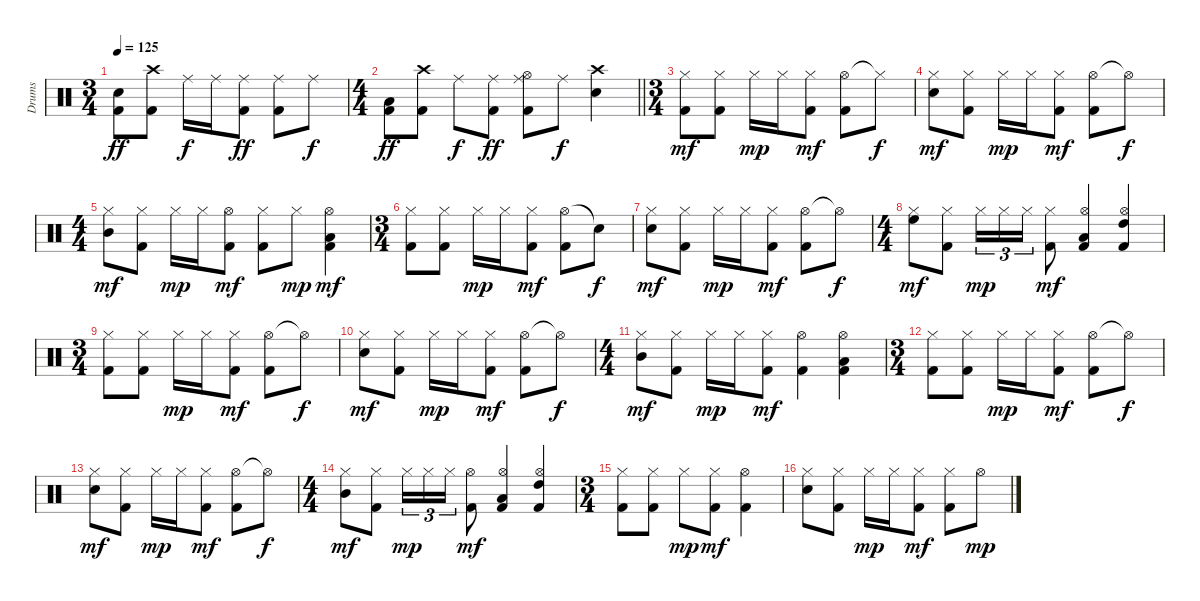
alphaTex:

\track ("Drums" "Drums") {instrument percussion}
\staff {score}
\articulation defaults
\ts (3 4)
\tempo 125
\clef neutral
\ks c
("Snare (hit) 2" "Kick (hit) 2").8{dy ff} ("Crash high (hit)" "Kick (hit) 2").8 "Ride (middle)".16{dy f} "Ride (middle)".16 ("Ride (middle)" "Kick (hit) 2").8{dy ff} ("Ride (middle)" "Kick (hit) 2").8 "Ride (middle)".8{dy f} |
\ts (4 4)
\barLineRight lightlight
("Low Floor Tom (hit)" "Kick (hit) 2").8{dy ff} ("Crash high (hit)" "Kick (hit) 2").8 "Ride (middle)".8{dy f} ("Ride (middle)" "Kick (hit) 2").8{dy ff} ("Ride (middle)" "Hi-Hat (open)" "Kick (hit) 2").8 "Ride (middle)".8{dy f} ("Crash high (hit)" "Snare (hit) 2").4 |
\ts (3 4)
\section ("" "")
("Hi-Hat (closed)" "Kick (hit) 2").8{dy mf} ("Hi-Hat (closed)" "Kick (hit) 2").8 "Hi-Hat (closed)".16{dy mp} "Hi-Hat (closed)".16 ("Hi-Hat (closed)" "Kick (hit) 2").8{dy mf} ("Hi-Hat (open)" "Kick (hit) 2").8 "Hi-Hat (closed)"{t}.8{dy f} |
("Hi-Hat (closed)" "Snare (hit) 2").8{dy mf} ("Hi-Hat (closed)" "Kick (hit) 2").8 "Hi-Hat (closed)".16{dy mp} "Hi-Hat (closed)".16 ("Hi-Hat (closed)" "Kick (hit) 2").8{dy mf} ("Hi-Hat (open)" "Kick (hit) 2").8 "Hi-Hat (open)"{t}.8{dy f} |
\ts (4 4)
("Hi-Hat (closed)" "Mid Tom (hit)").8{dy mf} ("Hi-Hat (closed)" "Kick (hit) 2").8 "Hi-Hat (closed)".16{dy mp} "Hi-Hat (closed)".16 ("Hi-Hat (open)" "Kick (hit) 2").8{dy mf} ("Hi-Hat (closed)" "Kick (hit) 2").8 "Hi-Hat (closed)".8{dy mp} ("Hi-Hat (open)" "Low Floor Tom (hit)" "Kick (hit) 2").4{dy mf} |
\ts (3 4)
("Hi-Hat (closed)" "Kick (hit) 2").8 ("Hi-Hat (closed)" "Kick (hit) 2").8 "Hi-Hat (closed)".16{dy mp} "Hi-Hat (closed)".16 ("Hi-Hat (closed)" "Kick (hit) 2").8{dy mf} ("Hi-Hat (open)" "Kick (hit) 2").8 "Snare (hit)"{t}.8{dy f} |
("Hi-Hat (closed)" "Snare (hit) 2").8{dy mf} ("Hi-Hat (closed)" "Kick (hit) 2").8 "Hi-Hat (closed)".16{dy mp} "Hi-Hat (closed)".16 ("Hi-Hat (closed)" "Kick (hit) 2").8{dy mf} ("Hi-Hat (open)" "Kick (hit) 2").8 "Hi-Hat (open)"{t}.8{dy f} |
\ts (4 4)
("Hi-Hat (closed)" "High Floor Tom (hit)").8{dy mf} ("Hi-Hat (closed)" "Kick (hit) 2").8 "Hi-Hat (closed)".16{tu (3 2) dy mp} "Hi-Hat (closed)".16{tu (3 2)} "Hi-Hat (closed)".16{tu (3 2)} ("Hi-Hat (closed)" "Kick (hit) 2").8{dy mf} ("Hi-Hat (open)" "Low Tom (hit)" "Kick (hit) 2").4 ("Hi-Hat (open)" "High Tom (hit)" "Kick (hit) 2").4 |
\ts (3 4)
("Hi-Hat (closed)" "Kick (hit) 2").8 ("Hi-Hat (closed)" "Kick (hit) 2").8 "Hi-Hat (closed)".16{dy mp} "Hi-Hat (closed)".16 ("Hi-Hat (closed)" "Kick (hit) 2").8{dy mf} ("Hi-Hat (open)" "Kick (hit) 2").8 "Hi-Hat (open)"{t}.8{dy f} |
("Hi-Hat (closed)" "Snare (hit) 2").8{dy mf} ("Hi-Hat (closed)" "Kick (hit) 2").8 "Hi-Hat (closed)".16{dy mp} "Hi-Hat (closed)".16 ("Hi-Hat (closed)" "Kick (hit) 2").8{dy mf} ("Hi-Hat (open)" "Kick (hit) 2").8 "Hi-Hat (open)"{t}.8{dy f} |
\ts (4 4)
("Hi-Hat (closed)" "Mid Tom (hit)").8{dy mf} ("Hi-Hat (closed)" "Kick (hit) 2").8 "Hi-Hat (closed)".16{dy mp} "Hi-Hat (closed)".16 ("Hi-Hat (closed)" "Kick (hit) 2").8{dy mf} ("Hi-Hat (open)" "Kick (hit) 2").4 ("Hi-Hat (open)" "Low Floor Tom (hit)" "Kick (hit) 2").4 |
\ts (3 4)
("Hi-Hat (closed)" "Kick (hit) 2").8 ("Hi-Hat (closed)" "Kick (hit) 2").8 "Hi-Hat (closed)".16{dy mp} "Hi-Hat (closed)".16 ("Hi-Hat (closed)" "Kick (hit) 2").8{dy mf} ("Hi-Hat (open)" "Kick (hit) 2").8 "Hi-Hat (open)"{t}.8{dy f} |
("Hi-Hat (closed)" "Snare (hit) 2").8{dy mf} ("Hi-Hat (closed)" "Kick (hit) 2").8 "Hi-Hat (closed)".16{dy mp} "Hi-Hat (closed)".16 ("Hi-Hat (closed)" "Kick (hit) 2").8{dy mf} ("Hi-Hat (open)" "Kick (hit) 2").8 "Hi-Hat (open)"{t}.8{dy f} |
\ts (4 4)
("Hi-Hat (closed)" "Mid Tom (hit)").8{dy mf} ("Hi-Hat (closed)" "Kick (hit) 2").8 "Hi-Hat (closed)".16{tu (3 2) dy mp} "Hi-Hat (closed)".16{tu (3 2)} "Hi-Hat (closed)".16{tu (3 2)} ("Hi-Hat (open)" "Kick (hit) 2").8{dy mf} ("Hi-Hat (open)" "Low Tom (hit)" "Kick (hit) 2").4 ("Hi-Hat (open)" "High Tom (hit)" "Kick (hit) 2").4 |
\ts (3 4)
("Hi-Hat (closed)" "Kick (hit) 2").8 ("Hi-Hat (closed)" "Kick (hit) 2").8 "Hi-Hat (closed)".8{dy mp} ("Hi-Hat (closed)" "Kick (hit) 2").8{dy mf} ("Hi-Hat (open)" "Kick (hit) 2").4 |
("Hi-Hat (closed)" "Snare (hit) 2").8 ("Hi-Hat (closed)" "Kick (hit) 2").8 "Hi-Hat (closed)".16{dy mp} "Hi-Hat (closed)".16 ("Hi-Hat (closed)" "Kick (hit) 2").8{dy mf} ("Hi-Hat (closed)" "Kick (hit) 2").8 "Hi-Hat (open)".8{dy mp}
